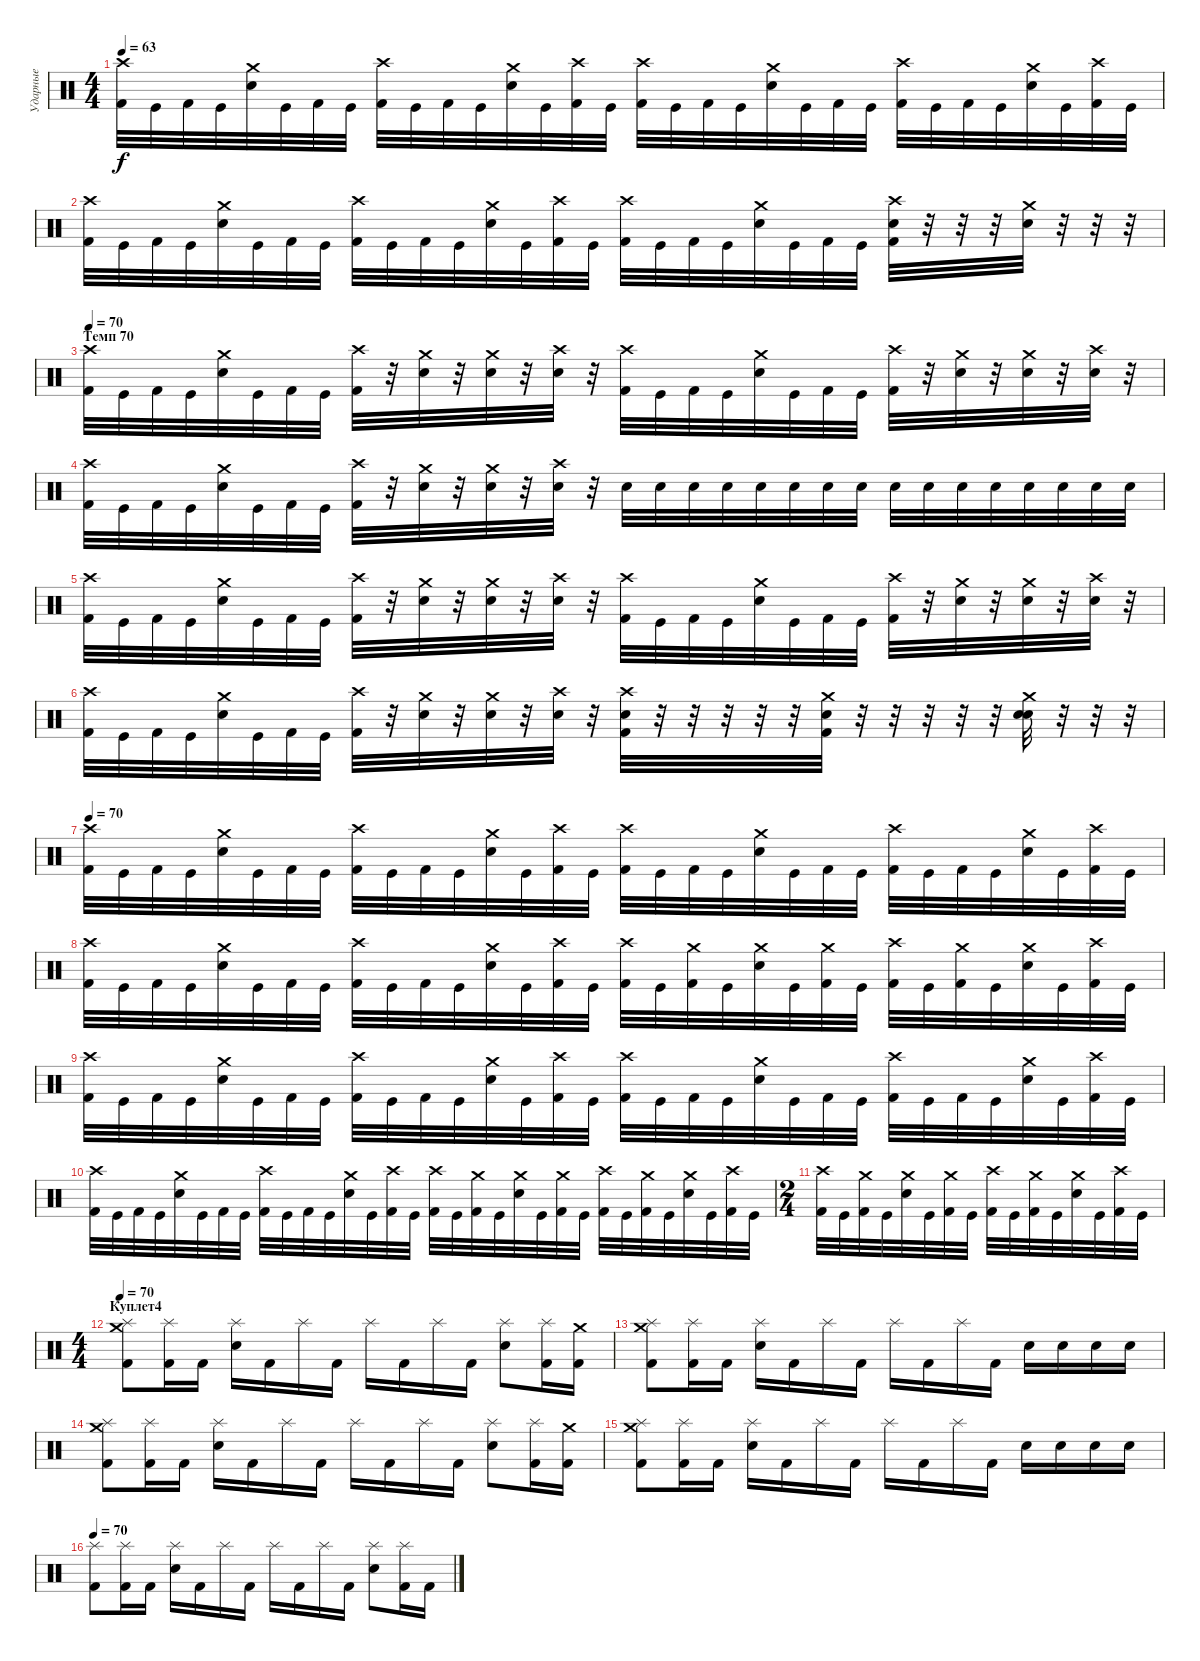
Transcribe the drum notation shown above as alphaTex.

\track ("Ударные" "Ударные") {instrument percussion}
\staff {score}
\articulation defaults
\ts (4 4)
\tempo 63
\clef neutral
\ks c
("Kick (hit) 2" "Crash high (hit)").32{dy f} "Kick (hit)".32 "Kick (hit) 2".32 "Kick (hit)".32 ("Snare (hit) 2" "Crash medium (hit)").32 "Kick (hit)".32 "Kick (hit) 2".32 "Kick (hit)".32 ("Kick (hit) 2" "Crash high (hit)").32 "Kick (hit)".32 "Kick (hit) 2".32 "Kick (hit)".32 ("Snare (hit) 2" "Crash medium (hit)").32 "Kick (hit)".32 ("Kick (hit) 2" "Crash high (hit)").32 "Kick (hit)".32 ("Kick (hit) 2" "Crash high (hit)").32 "Kick (hit)".32 "Kick (hit) 2".32 "Kick (hit)".32 ("Snare (hit) 2" "Crash medium (hit)").32 "Kick (hit)".32 "Kick (hit) 2".32 "Kick (hit)".32 ("Kick (hit) 2" "Crash high (hit)").32 "Kick (hit)".32 "Kick (hit) 2".32 "Kick (hit)".32 ("Snare (hit) 2" "Crash medium (hit)").32 "Kick (hit)".32 ("Kick (hit) 2" "Crash high (hit)").32 "Kick (hit)".32 |
("Kick (hit) 2" "Crash high (hit)").32 "Kick (hit)".32 "Kick (hit) 2".32 "Kick (hit)".32 ("Snare (hit) 2" "Crash medium (hit)").32 "Kick (hit)".32 "Kick (hit) 2".32 "Kick (hit)".32 ("Kick (hit) 2" "Crash high (hit)").32 "Kick (hit)".32 "Kick (hit) 2".32 "Kick (hit)".32 ("Snare (hit) 2" "Crash medium (hit)").32 "Kick (hit)".32 ("Kick (hit) 2" "Crash high (hit)").32 "Kick (hit)".32 ("Kick (hit) 2" "Crash high (hit)").32 "Kick (hit)".32 "Kick (hit) 2".32 "Kick (hit)".32 ("Snare (hit) 2" "Crash medium (hit)").32 "Kick (hit)".32 "Kick (hit) 2".32 "Kick (hit)".32 ("Kick (hit) 2" "Snare (hit) 2" "Crash high (hit)").32 r.32 r.32 r.32 ("Snare (hit) 2" "Crash medium (hit)").32 r.32 r.32 r.32 |
\section ("" "Темп 70")
\tempo 70
("Kick (hit) 2" "Crash high (hit)").32 "Kick (hit)".32 "Kick (hit) 2".32 "Kick (hit)".32 ("Snare (hit) 2" "Crash medium (hit)").32 "Kick (hit)".32 "Kick (hit) 2".32 "Kick (hit)".32 ("Kick (hit) 2" "Crash high (hit)").32 r.32 ("Snare (hit) 2" "Crash medium (hit)").32 r.32 ("Snare (hit) 2" "Crash medium (hit)").32 r.32 ("Snare (hit) 2" "Crash high (hit)").32 r.32 ("Kick (hit) 2" "Crash high (hit)").32 "Kick (hit)".32 "Kick (hit) 2".32 "Kick (hit)".32 ("Snare (hit) 2" "Crash medium (hit)").32 "Kick (hit)".32 "Kick (hit) 2".32 "Kick (hit)".32 ("Kick (hit) 2" "Crash high (hit)").32 r.32 ("Snare (hit) 2" "Crash medium (hit)").32 r.32 ("Snare (hit) 2" "Crash medium (hit)").32 r.32 ("Snare (hit) 2" "Crash high (hit)").32 r.32 |
("Kick (hit) 2" "Crash high (hit)").32 "Kick (hit)".32 "Kick (hit) 2".32 "Kick (hit)".32 ("Snare (hit) 2" "Crash medium (hit)").32 "Kick (hit)".32 "Kick (hit) 2".32 "Kick (hit)".32 ("Kick (hit) 2" "Crash high (hit)").32 r.32 ("Snare (hit) 2" "Crash medium (hit)").32 r.32 ("Snare (hit) 2" "Crash medium (hit)").32 r.32 ("Snare (hit) 2" "Crash high (hit)").32 r.32{volume 6} "Snare (hit) 2".32{volume 16} "Snare (hit) 2".32 "Snare (hit) 2".32 "Snare (hit) 2".32 "Snare (hit) 2".32 "Snare (hit) 2".32 "Snare (hit) 2".32 "Snare (hit) 2".32 "Snare (hit) 2".32 "Snare (hit) 2".32 "Snare (hit) 2".32 "Snare (hit) 2".32 "Snare (hit) 2".32 "Snare (hit) 2".32 "Snare (hit) 2".32 "Snare (hit) 2".32 |
("Kick (hit) 2" "Crash high (hit)").32 "Kick (hit)".32 "Kick (hit) 2".32 "Kick (hit)".32 ("Snare (hit) 2" "Crash medium (hit)").32 "Kick (hit)".32 "Kick (hit) 2".32 "Kick (hit)".32 ("Kick (hit) 2" "Crash high (hit)").32 r.32 ("Snare (hit) 2" "Crash medium (hit)").32 r.32 ("Snare (hit) 2" "Crash medium (hit)").32 r.32 ("Snare (hit) 2" "Crash high (hit)").32 r.32 ("Kick (hit) 2" "Crash high (hit)").32 "Kick (hit)".32 "Kick (hit) 2".32 "Kick (hit)".32 ("Snare (hit) 2" "Crash medium (hit)").32 "Kick (hit)".32 "Kick (hit) 2".32 "Kick (hit)".32 ("Kick (hit) 2" "Crash high (hit)").32 r.32 ("Snare (hit) 2" "Crash medium (hit)").32 r.32 ("Snare (hit) 2" "Crash medium (hit)").32 r.32 ("Snare (hit) 2" "Crash high (hit)").32 r.32 |
("Kick (hit) 2" "Crash high (hit)").32 "Kick (hit)".32 "Kick (hit) 2".32 "Kick (hit)".32 ("Snare (hit) 2" "Crash medium (hit)").32 "Kick (hit)".32 "Kick (hit) 2".32 "Kick (hit)".32 ("Kick (hit) 2" "Crash high (hit)").32 r.32 ("Snare (hit) 2" "Crash medium (hit)").32 r.32 ("Snare (hit) 2" "Crash medium (hit)").32 r.32 ("Snare (hit) 2" "Crash high (hit)").32 r.32 ("Kick (hit) 2" "Snare (hit) 2" "Crash high (hit)").32 r.32 r.32 r.32 r.32 r.32 ("Kick (hit) 2" "Snare (hit) 2" "Crash medium (hit)").32 r.32 r.32 r.32 r.32 r.32 ("Snare (hit)" "Snare (hit) 2" "Crash medium (hit)").32 r.32 r.32 r.32 |
\tempo 70
("Kick (hit) 2" "Crash high (hit)").32 "Kick (hit)".32 "Kick (hit) 2".32 "Kick (hit)".32 ("Snare (hit) 2" "Crash medium (hit)").32 "Kick (hit)".32 "Kick (hit) 2".32 "Kick (hit)".32 ("Kick (hit) 2" "Crash high (hit)").32 "Kick (hit)".32 "Kick (hit) 2".32 "Kick (hit)".32 ("Snare (hit) 2" "Crash medium (hit)").32 "Kick (hit)".32 ("Kick (hit) 2" "Crash high (hit)").32 "Kick (hit)".32 ("Kick (hit) 2" "Crash high (hit)").32 "Kick (hit)".32 "Kick (hit) 2".32 "Kick (hit)".32 ("Snare (hit) 2" "Crash medium (hit)").32 "Kick (hit)".32 "Kick (hit) 2".32 "Kick (hit)".32 ("Kick (hit) 2" "Crash high (hit)").32 "Kick (hit)".32 "Kick (hit) 2".32 "Kick (hit)".32 ("Snare (hit) 2" "Crash medium (hit)").32 "Kick (hit)".32 ("Kick (hit) 2" "Crash high (hit)").32 "Kick (hit)".32 |
("Kick (hit) 2" "Crash high (hit)").32 "Kick (hit)".32 "Kick (hit) 2".32 "Kick (hit)".32 ("Snare (hit) 2" "Crash medium (hit)").32 "Kick (hit)".32 "Kick (hit) 2".32 "Kick (hit)".32 ("Kick (hit) 2" "Crash high (hit)").32 "Kick (hit)".32 "Kick (hit) 2".32 "Kick (hit)".32 ("Snare (hit) 2" "Crash medium (hit)").32 "Kick (hit)".32 ("Kick (hit) 2" "Crash high (hit)").32 "Kick (hit)".32 ("Kick (hit) 2" "Crash high (hit)").32 "Kick (hit)".32 ("Kick (hit) 2" "Crash medium (hit)").32 "Kick (hit)".32 ("Snare (hit) 2" "Crash medium (hit)").32 "Kick (hit)".32 ("Kick (hit) 2" "Crash medium (hit)").32 "Kick (hit)".32 ("Kick (hit) 2" "Crash high (hit)").32 "Kick (hit)".32 ("Kick (hit) 2" "Crash medium (hit)").32 "Kick (hit)".32 ("Snare (hit) 2" "Crash medium (hit)").32 "Kick (hit)".32 ("Kick (hit) 2" "Crash high (hit)").32 "Kick (hit)".32 |
("Kick (hit) 2" "Crash high (hit)").32 "Kick (hit)".32 "Kick (hit) 2".32 "Kick (hit)".32 ("Snare (hit) 2" "Crash medium (hit)").32 "Kick (hit)".32 "Kick (hit) 2".32 "Kick (hit)".32 ("Kick (hit) 2" "Crash high (hit)").32 "Kick (hit)".32 "Kick (hit) 2".32 "Kick (hit)".32 ("Snare (hit) 2" "Crash medium (hit)").32 "Kick (hit)".32 ("Kick (hit) 2" "Crash high (hit)").32 "Kick (hit)".32 ("Kick (hit) 2" "Crash high (hit)").32 "Kick (hit)".32 "Kick (hit) 2".32 "Kick (hit)".32 ("Snare (hit) 2" "Crash medium (hit)").32 "Kick (hit)".32 "Kick (hit) 2".32 "Kick (hit)".32 ("Kick (hit) 2" "Crash high (hit)").32 "Kick (hit)".32 "Kick (hit) 2".32 "Kick (hit)".32 ("Snare (hit) 2" "Crash medium (hit)").32 "Kick (hit)".32 ("Kick (hit) 2" "Crash high (hit)").32 "Kick (hit)".32 |
("Kick (hit) 2" "Crash high (hit)").32 "Kick (hit)".32 "Kick (hit) 2".32 "Kick (hit)".32 ("Snare (hit) 2" "Crash medium (hit)").32 "Kick (hit)".32 "Kick (hit) 2".32 "Kick (hit)".32 ("Kick (hit) 2" "Crash high (hit)").32 "Kick (hit)".32 "Kick (hit) 2".32 "Kick (hit)".32 ("Snare (hit) 2" "Crash medium (hit)").32 "Kick (hit)".32 ("Kick (hit) 2" "Crash high (hit)").32 "Kick (hit)".32 ("Kick (hit) 2" "Crash high (hit)").32 "Kick (hit)".32 ("Kick (hit) 2" "Crash medium (hit)").32 "Kick (hit)".32 ("Snare (hit) 2" "Crash medium (hit)").32 "Kick (hit)".32 ("Kick (hit) 2" "Crash medium (hit)").32 "Kick (hit)".32 ("Kick (hit) 2" "Crash high (hit)").32 "Kick (hit)".32 ("Kick (hit) 2" "Crash medium (hit)").32 "Kick (hit)".32 ("Snare (hit) 2" "Crash medium (hit)").32 "Kick (hit)".32 ("Kick (hit) 2" "Crash high (hit)").32 "Kick (hit)".32 |
\ts (2 4)
("Kick (hit) 2" "Crash high (hit)").32 "Kick (hit)".32 ("Kick (hit) 2" "Crash medium (hit)").32 "Kick (hit)".32 ("Snare (hit) 2" "Crash medium (hit)").32 "Kick (hit)".32 ("Kick (hit) 2" "Crash medium (hit)").32 "Kick (hit)".32 ("Kick (hit) 2" "Crash high (hit)").32 "Kick (hit)".32 ("Kick (hit) 2" "Crash medium (hit)").32 "Kick (hit)".32 ("Snare (hit) 2" "Crash medium (hit)").32 "Kick (hit)".32 ("Kick (hit) 2" "Crash high (hit)").32 "Kick (hit)".32 |
\ts (4 4)
\section ("" "Куплет4")
\tempo 70
("Kick (hit) 2" "Splash (hit)" "Crash medium (hit)").8 ("Kick (hit) 2" "Splash (hit)").16 "Kick (hit) 2".16 ("Snare (hit) 2" "Splash (hit)").16 "Kick (hit) 2".16 "Splash (hit)".16 "Kick (hit) 2".16 "Splash (hit)".16 "Kick (hit) 2".16 "Splash (hit)".16 "Kick (hit) 2".16 ("Snare (hit) 2" "Splash (hit)").8 ("Kick (hit) 2" "Splash (hit)").16 ("Kick (hit) 2" "Crash medium (hit)").16 |
("Kick (hit) 2" "Splash (hit)" "Crash medium (hit)").8 ("Kick (hit) 2" "Splash (hit)").16 "Kick (hit) 2".16 ("Snare (hit) 2" "Splash (hit)").16 "Kick (hit) 2".16 "Splash (hit)".16 "Kick (hit) 2".16 "Splash (hit)".16 "Kick (hit) 2".16 "Splash (hit)".16 "Kick (hit) 2".16 "Snare (hit) 2".16 "Snare (hit) 2".16 "Snare (hit) 2".16 "Snare (hit) 2".16 |
("Kick (hit) 2" "Splash (hit)" "Crash medium (hit)").8 ("Kick (hit) 2" "Splash (hit)").16 "Kick (hit) 2".16 ("Snare (hit) 2" "Splash (hit)").16 "Kick (hit) 2".16 "Splash (hit)".16 "Kick (hit) 2".16 "Splash (hit)".16 "Kick (hit) 2".16 "Splash (hit)".16 "Kick (hit) 2".16 ("Snare (hit) 2" "Splash (hit)").8 ("Kick (hit) 2" "Splash (hit)").16 ("Kick (hit) 2" "Crash medium (hit)").16 |
("Kick (hit) 2" "Splash (hit)" "Crash medium (hit)").8 ("Kick (hit) 2" "Splash (hit)").16 "Kick (hit) 2".16 ("Snare (hit) 2" "Splash (hit)").16 "Kick (hit) 2".16 "Splash (hit)".16 "Kick (hit) 2".16 "Splash (hit)".16 "Kick (hit) 2".16 "Splash (hit)".16 "Kick (hit) 2".16 "Snare (hit) 2".16 "Snare (hit) 2".16 "Snare (hit) 2".16 "Snare (hit) 2".16 |
\tempo 70
("Kick (hit) 2" "Splash (hit)").8 ("Kick (hit) 2" "Splash (hit)").16 "Kick (hit) 2".16 ("Snare (hit) 2" "Splash (hit)").16 "Kick (hit) 2".16 "Splash (hit)".16 "Kick (hit) 2".16 "Splash (hit)".16 "Kick (hit) 2".16 "Splash (hit)".16 "Kick (hit) 2".16 ("Snare (hit) 2" "Splash (hit)").8 ("Kick (hit) 2" "Splash (hit)").16 "Kick (hit) 2".16
